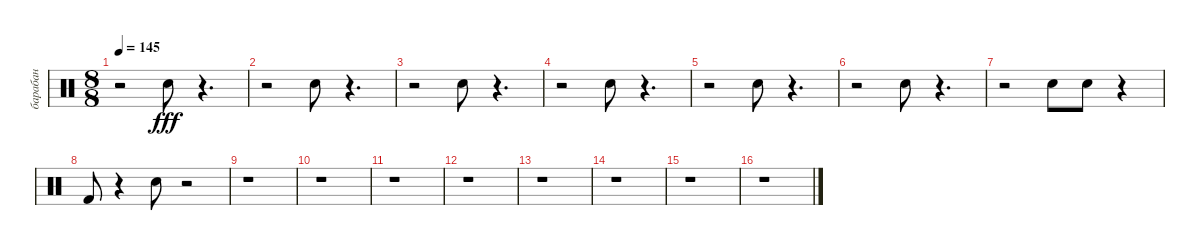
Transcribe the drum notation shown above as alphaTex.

\track ("барабан" "барабан") {instrument percussion}
\staff {score}
\articulation defaults
\ts (8 8)
\tempo 145
\clef neutral
\ks c
r.2{dy fff} "Snare (hit) 2".8 r.4{d} |
r.2 "Snare (hit) 2".8 r.4{d} |
r.2 "Snare (hit) 2".8 r.4{d} |
r.2 "Snare (hit) 2".8 r.4{d} |
r.2 "Snare (hit) 2".8 r.4{d} |
r.2 "Snare (hit) 2".8 r.4{d} |
r.2 "Snare (hit) 2".8 "Snare (hit) 2".8 r.4 |
"Kick (hit) 2".8 r.4 "Snare (hit) 2".8 r.2 |
r.1 |
r.1 |
r.1 |
r.1 |
r.1 |
r.1 |
r.1 |
r.1
